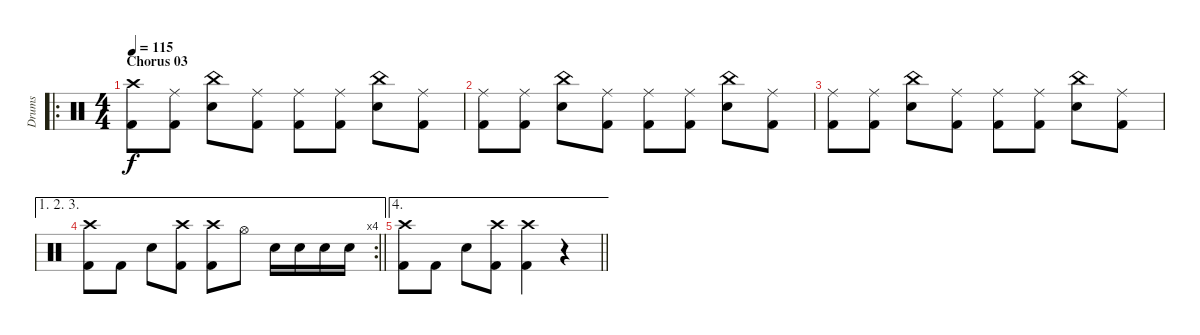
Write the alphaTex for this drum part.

\track ("Drums" "Drums") {instrument percussion}
\staff {score}
\articulation defaults
\ro
\ts (4 4)
\section ("" "Chorus 03")
\tempo 115
\clef neutral
\ks c
("Crash high (hit)" "Kick (hit) 2").8{dy f} ("Ride (middle)" "Kick (hit) 2").8 ("China (hit)" "Snare (hit) 2").8 ("Ride (middle)" "Kick (hit) 2").8 ("Ride (middle)" "Kick (hit) 2").8 ("Ride (middle)" "Kick (hit) 2").8 ("China (hit)" "Snare (hit) 2").8 ("Ride (middle)" "Kick (hit) 2").8 |
("Ride (middle)" "Kick (hit) 2").8 ("Ride (middle)" "Kick (hit) 2").8 ("China (hit)" "Snare (hit) 2").8 ("Ride (middle)" "Kick (hit) 2").8 ("Ride (middle)" "Kick (hit) 2").8 ("Ride (middle)" "Kick (hit) 2").8 ("China (hit)" "Snare (hit) 2").8 ("Ride (middle)" "Kick (hit) 2").8 |
("Ride (middle)" "Kick (hit) 2").8 ("Ride (middle)" "Kick (hit) 2").8 ("China (hit)" "Snare (hit) 2").8 ("Ride (middle)" "Kick (hit) 2").8 ("Ride (middle)" "Kick (hit) 2").8 ("Ride (middle)" "Kick (hit) 2").8 ("China (hit)" "Snare (hit) 2").8 ("Ride (middle)" "Kick (hit) 2").8 |
\ae (1 2 3)
\rc 4
\barLineRight lightlight
("Crash high (hit)" "Kick (hit) 2").8 "Kick (hit) 2".8 "Snare (hit) 2".8 ("Crash high (hit)" "Kick (hit) 2").8 ("Crash high (hit)" "Kick (hit) 2").8 "Hi-Hat (open)".8 "Snare (hit) 2".16 "Snare (hit) 2".16 "Snare (hit) 2".16 "Snare (hit) 2".16 |
\ae 4
\barLineRight lightlight
("Crash high (hit)" "Kick (hit) 2").8 "Kick (hit) 2".8 "Snare (hit) 2".8 ("Crash high (hit)" "Kick (hit) 2").8 ("Crash high (hit)" "Kick (hit) 2").4 r.4
